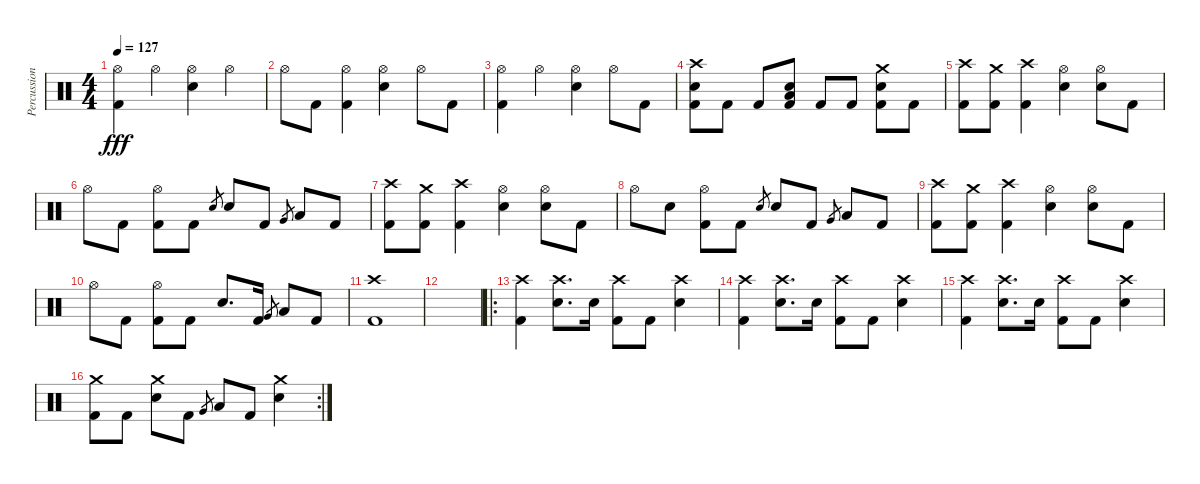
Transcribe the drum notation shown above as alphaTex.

\track ("Percussion" "Percussion") {instrument percussion}
\staff {score}
\articulation defaults
\ts (4 4)
\tempo 127
\clef neutral
\ks c
("Hi-Hat (open)" "Kick (hit) 2").4{dy fff} "Hi-Hat (open)".4 ("Hi-Hat (open)" "Snare (hit) 2").4 "Hi-Hat (open)".4 |
"Hi-Hat (open)".8 "Kick (hit) 2".8 ("Hi-Hat (open)" "Kick (hit) 2").4 ("Hi-Hat (open)" "Snare (hit) 2").4 "Hi-Hat (open)".8 "Kick (hit) 2".8 |
("Hi-Hat (open)" "Kick (hit) 2").4 "Hi-Hat (open)".4 ("Hi-Hat (open)" "Snare (hit) 2").4 "Hi-Hat (open)".8 "Kick (hit) 2".8 |
("Crash high (hit)" "Snare (hit) 2" "Kick (hit) 2").8 "Kick (hit) 2".8 "Kick (hit) 2".8 ("Snare (hit) 2" "Low Tom (hit)" "Kick (hit) 2").8 "Kick (hit) 2".8 "Kick (hit) 2".8 ("Crash medium (hit)" "Snare (hit) 2" "Kick (hit) 2").8 "Kick (hit) 2".8 |
("Crash high (hit)" "Kick (hit) 2").8 ("Crash medium (hit)" "Kick (hit) 2").8 ("Crash high (hit)" "Kick (hit) 2").4 ("Hi-Hat (open)" "Snare (hit) 2").4 ("Hi-Hat (open)" "Snare (hit) 2").8 "Kick (hit) 2".8 |
"Hi-Hat (open)".8 "Kick (hit) 2".8 ("Hi-Hat (open)" "Kick (hit) 2").8 "Kick (hit) 2".8 "Snare (hit) 2".8{gr} "Snare (hit) 2".8 "Kick (hit) 2".8 "Very Low Tom (hit)".8{gr} "Low Tom (hit)".8 "Kick (hit) 2".8 |
("Crash high (hit)" "Kick (hit) 2").8 ("Crash medium (hit)" "Kick (hit) 2").8 ("Crash high (hit)" "Kick (hit) 2").4 ("Hi-Hat (open)" "Snare (hit) 2").4 ("Hi-Hat (open)" "Snare (hit) 2").8 "Kick (hit) 2".8 |
"Hi-Hat (open)".8 "Snare (hit) 2".8 ("Hi-Hat (open)" "Kick (hit) 2").8 "Kick (hit) 2".8 "Snare (hit) 2".8{gr} "Snare (hit) 2".8 "Kick (hit) 2".8 "Very Low Tom (hit)".8{gr} "Low Tom (hit)".8 "Kick (hit) 2".8 |
("Crash high (hit)" "Kick (hit) 2").8 ("Crash medium (hit)" "Kick (hit) 2").8 ("Crash high (hit)" "Kick (hit) 2").4 ("Hi-Hat (open)" "Snare (hit) 2").4 ("Hi-Hat (open)" "Snare (hit) 2").8 "Kick (hit) 2".8 |
"Hi-Hat (open)".8 "Kick (hit) 2".8 ("Hi-Hat (open)" "Kick (hit) 2").8 "Kick (hit) 2".8 "Snare (hit) 2".8{d} "Kick (hit) 2".16 "Very Low Tom (hit)".8{gr} "Low Tom (hit)".8 "Kick (hit) 2".8 |
("Crash high (hit)" "Kick (hit) 2").1 |
|
\ro
("Crash high (hit)" "Kick (hit) 2").4 ("Crash high (hit)" "Snare (hit) 2").8{d} "Snare (hit) 2".16 ("Crash high (hit)" "Kick (hit) 2").8 "Kick (hit) 2".8 ("Crash high (hit)" "Snare (hit) 2").4 |
("Crash high (hit)" "Kick (hit) 2").4 ("Crash high (hit)" "Snare (hit) 2").8{d} "Snare (hit) 2".16 ("Crash high (hit)" "Kick (hit) 2").8 "Kick (hit) 2".8 ("Crash high (hit)" "Snare (hit) 2").4 |
("Crash high (hit)" "Kick (hit) 2").4 ("Crash high (hit)" "Snare (hit) 2").8{d} "Snare (hit) 2".16 ("Crash high (hit)" "Kick (hit) 2").8 "Kick (hit) 2".8 ("Crash high (hit)" "Snare (hit) 2").4 |
\rc 2
("Crash medium (hit)" "Kick (hit) 2").8 "Kick (hit) 2".8 ("Crash medium (hit)" "Snare (hit) 2").8 "Kick (hit) 2".8 "Very Low Tom (hit)".8{gr} "Low Tom (hit)".8 "Kick (hit) 2".8 ("Crash medium (hit)" "Snare (hit) 2").4
